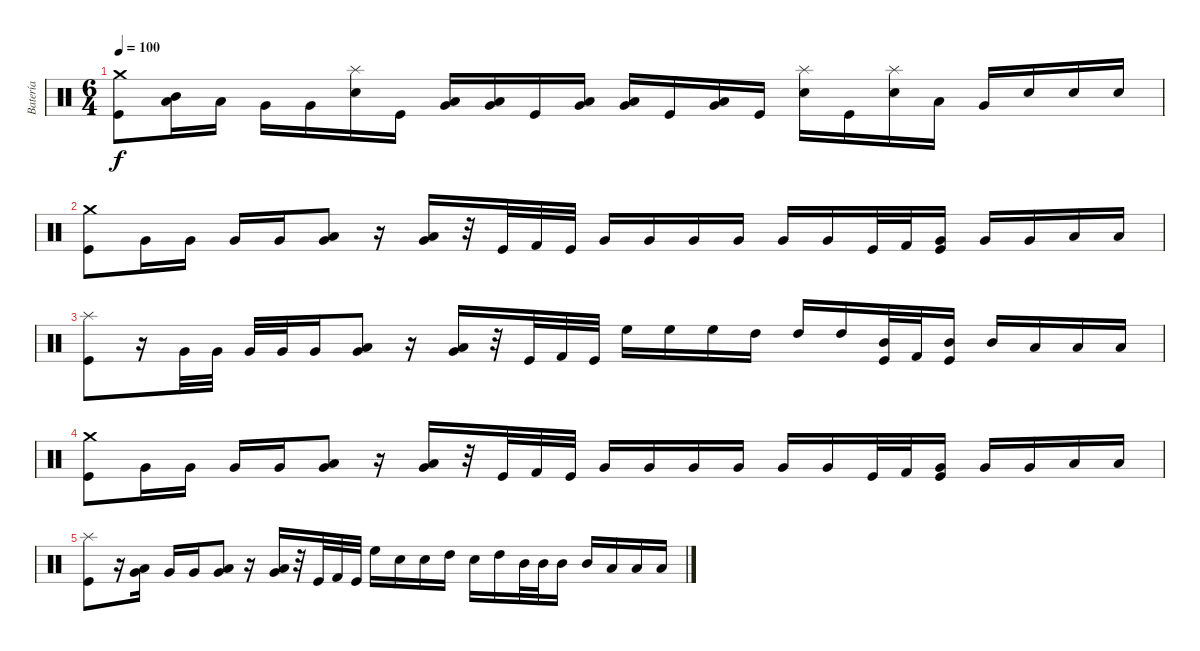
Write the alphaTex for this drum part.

\track ("Batería" "Batería") {instrument percussion}
\staff {score}
\articulation defaults
\ts (6 4)
\tempo 100
\clef neutral
\ks c
("Crash medium (hit)" "Kick (hit)").8{dy f} ("Mid Tom (hit)" "Low Tom (hit)").16 "Low Tom (hit)".16 "Very Low Tom (hit)".16 "Very Low Tom (hit)".16 ("Splash (hit)" "Electric Snare (hit)").16 "Kick (hit)".16 ("Low Tom (hit)" "Very Low Tom (hit)").16 ("Low Tom (hit)" "Very Low Tom (hit)").16 "Kick (hit)".16 ("Very Low Tom (hit)" "Low Floor Tom (hit)").16 ("Very Low Tom (hit)" "Low Floor Tom (hit)").16 "Kick (hit)".16 ("Low Tom (hit)" "Very Low Tom (hit)").16 "Kick (hit)".16 ("Splash (hit)" "Electric Snare (hit)").16 "Kick (hit)".16 ("Splash (hit)" "Electric Snare (hit)").16 "Low Tom (hit)".16 "Very Low Tom (hit)".16 "Electric Snare (hit)".16 "Electric Snare (hit)".16 "Electric Snare (hit)".16 |
("Crash medium (hit)" "Kick (hit)").8 "Very Low Tom (hit)".16 "Very Low Tom (hit)".16 "Very Low Tom (hit)".16 "Very Low Tom (hit)".16 ("Very Low Tom (hit)" "Low Floor Tom (hit)").8 r.16 ("Very Low Tom (hit)" "Low Floor Tom (hit)").16 r.32 "Kick (hit)".32 "Kick (hit) 2".32 "Kick (hit)".32 "Very Low Tom (hit)".16 "Very Low Tom (hit)".16 "Very Low Tom (hit)".16 "Very Low Tom (hit)".16 "Very Low Tom (hit)".16 "Very Low Tom (hit)".16 "Kick (hit)".32 "Kick (hit) 2".32 ("Very Low Tom (hit)" "Kick (hit)").16 "Very Low Tom (hit)".16 "Very Low Tom (hit)".16 "Low Floor Tom (hit)".16 "Low Floor Tom (hit)".16 |
("Splash (hit)" "Kick (hit)").8 r.16 "Very Low Tom (hit)".32 "Very Low Tom (hit)".32 "Very Low Tom (hit)".32 "Very Low Tom (hit)".32 "Very Low Tom (hit)".16 ("Very Low Tom (hit)" "Low Floor Tom (hit)").8 r.16 ("Very Low Tom (hit)" "Low Floor Tom (hit)").16 r.32 "Kick (hit)".32 "Kick (hit) 2".32 "Kick (hit)".32 "High Floor Tom (hit)".16 "High Floor Tom (hit)".16 "High Floor Tom (hit)".16 "High Tom (hit)".16 "High Tom (hit)".16 "High Tom (hit)".16 ("Mid Tom (hit)" "Kick (hit)").32 "Kick (hit) 2".32 ("Mid Tom (hit)" "Kick (hit)").16 "Mid Tom (hit)".16 "Low Tom (hit)".16 "Low Tom (hit)".16 "Low Tom (hit)".16 |
("Crash medium (hit)" "Kick (hit)").8 "Very Low Tom (hit)".16 "Very Low Tom (hit)".16 "Very Low Tom (hit)".16 "Very Low Tom (hit)".16 ("Very Low Tom (hit)" "Low Floor Tom (hit)").8 r.16 ("Very Low Tom (hit)" "Low Floor Tom (hit)").16 r.32 "Kick (hit)".32 "Kick (hit) 2".32 "Kick (hit)".32 "Very Low Tom (hit)".16 "Very Low Tom (hit)".16 "Very Low Tom (hit)".16 "Very Low Tom (hit)".16 "Very Low Tom (hit)".16 "Very Low Tom (hit)".16 "Kick (hit)".32 "Kick (hit) 2".32 ("Very Low Tom (hit)" "Kick (hit)").16 "Very Low Tom (hit)".16 "Very Low Tom (hit)".16 "Low Floor Tom (hit)".16 "Low Floor Tom (hit)".16 |
("Splash (hit)" "Kick (hit)").8 r.16 ("Low Tom (hit)" "Very Low Tom (hit)").16 "Very Low Tom (hit)".16 "Very Low Tom (hit)".16 ("Very Low Tom (hit)" "Low Floor Tom (hit)").8 r.16 ("Very Low Tom (hit)" "Low Floor Tom (hit)").16 r.32 "Kick (hit)".32 "Kick (hit) 2".32 "Kick (hit)".32 "High Floor Tom (hit)".16 "Electric Snare (hit)".16 "Electric Snare (hit)".16 "High Tom (hit)".16 "Electric Snare (hit)".16 "High Tom (hit)".16 "Mid Tom (hit)".32 "Mid Tom (hit)".32 "Mid Tom (hit)".16 "Mid Tom (hit)".16 "Low Tom (hit)".16 "Low Tom (hit)".16 "Low Tom (hit)".16
